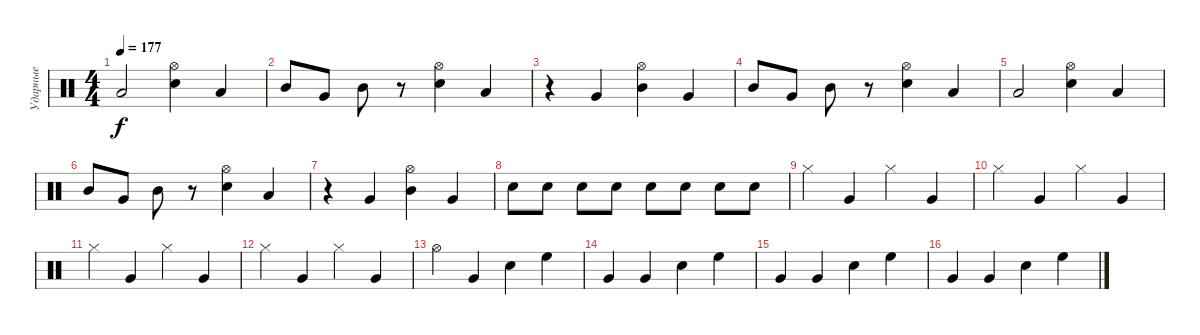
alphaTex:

\track ("Ударные" "Ударные") {instrument percussion}
\staff {score}
\articulation defaults
\ts (4 4)
\tempo 177
\clef neutral
\ks c "Low Tom (hit)".2{dy f}
("Hi-Hat (open)" "Electric Snare (hit)").4 "Low Tom (hit)".4 |
"Mid Tom (hit)".8 "Very Low Tom (hit)".8 "Mid Tom (hit)".8 r.8 ("Hi-Hat (open)" "Electric Snare (hit)").4 "Low Tom (hit)".4 |
r.4 "Very Low Tom (hit)".4 ("Hi-Hat (open)" "Mid Tom (hit)").4 "Very Low Tom (hit)".4 |
"Mid Tom (hit)".8 "Very Low Tom (hit)".8 "Mid Tom (hit)".8 r.8 ("Hi-Hat (open)" "Electric Snare (hit)").4 "Low Tom (hit)".4 |
"Low Tom (hit)".2 ("Hi-Hat (open)" "Electric Snare (hit)").4 "Low Tom (hit)".4 |
"Mid Tom (hit)".8 "Very Low Tom (hit)".8 "Mid Tom (hit)".8 r.8 ("Hi-Hat (open)" "Electric Snare (hit)").4 "Low Tom (hit)".4 |
r.4 "Very Low Tom (hit)".4 ("Hi-Hat (open)" "Mid Tom (hit)").4 "Very Low Tom (hit)".4 |
"Electric Snare (hit)".8 "Electric Snare (hit)".8 "Electric Snare (hit)".8 "Electric Snare (hit)".8 "Electric Snare (hit)".8 "Electric Snare (hit)".8 "Electric Snare (hit)".8 "Electric Snare (hit)".8 |
"Hi-Hat (closed)".4 "Very Low Tom (hit)".4 "Hi-Hat (closed)".4 "Very Low Tom (hit)".4 |
"Hi-Hat (closed)".4 "Very Low Tom (hit)".4 "Hi-Hat (closed)".4 "Very Low Tom (hit)".4 |
"Hi-Hat (closed)".4 "Very Low Tom (hit)".4 "Hi-Hat (closed)".4 "Very Low Tom (hit)".4 |
"Hi-Hat (closed)".4 "Very Low Tom (hit)".4 "Hi-Hat (closed)".4 "Very Low Tom (hit)".4 |
"Hi-Hat (open)".4 "Very Low Tom (hit)".4 "Electric Snare (hit)".4 "High Floor Tom (hit)".4 |
"Very Low Tom (hit)".4 "Very Low Tom (hit)".4 "Electric Snare (hit)".4 "High Floor Tom (hit)".4 |
"Very Low Tom (hit)".4 "Very Low Tom (hit)".4 "Electric Snare (hit)".4 "High Floor Tom (hit)".4 |
"Very Low Tom (hit)".4 "Very Low Tom (hit)".4 "Electric Snare (hit)".4 "High Floor Tom (hit)".4
